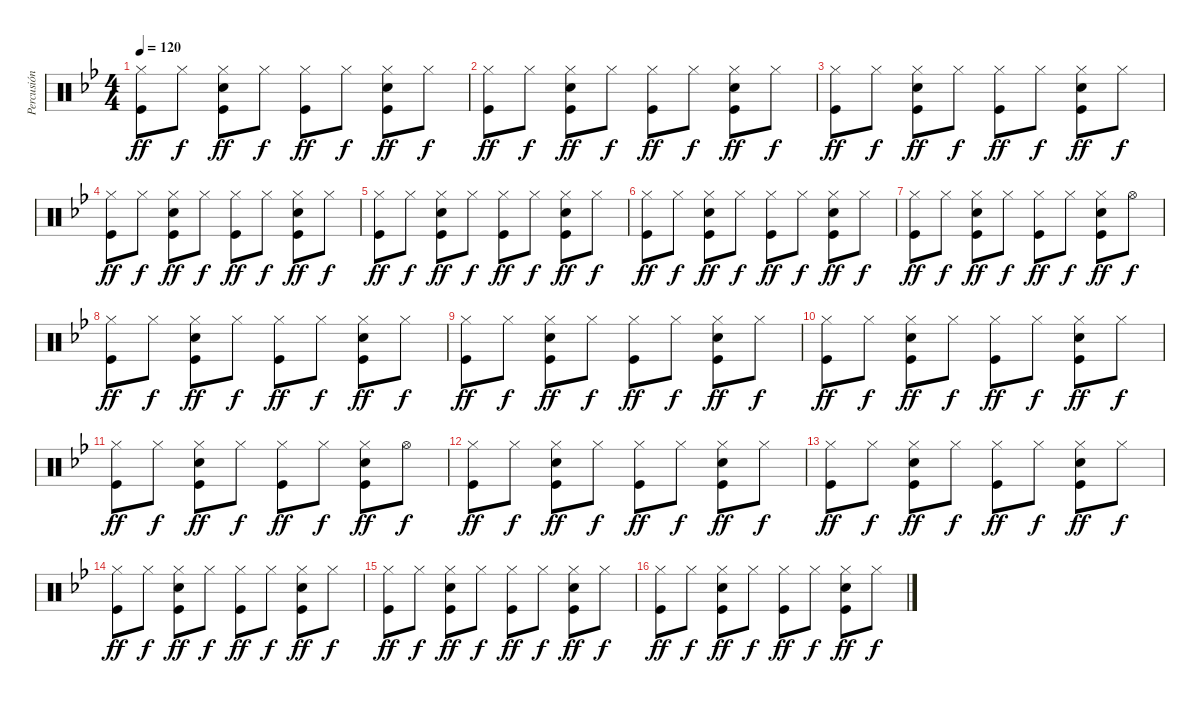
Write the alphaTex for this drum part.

\track ("Percusión" "Percusión") {instrument percussion}
\staff {score}
\articulation defaults
\ts (4 4)
\tempo 120
\clef neutral
\ks bb
("Hi-Hat (closed)" "Kick (hit)").8{dy ff} "Hi-Hat (closed)".8{dy f} ("Hi-Hat (closed)" "Snare (hit) 2" "Kick (hit)").8{dy ff} "Hi-Hat (closed)".8{dy f} ("Hi-Hat (closed)" "Kick (hit)").8{dy ff} "Hi-Hat (closed)".8{dy f} ("Hi-Hat (closed)" "Snare (hit) 2" "Kick (hit)").8{dy ff} "Hi-Hat (closed)".8{dy f} |
("Hi-Hat (closed)" "Kick (hit)").8{dy ff} "Hi-Hat (closed)".8{dy f} ("Hi-Hat (closed)" "Snare (hit) 2" "Kick (hit)").8{dy ff} "Hi-Hat (closed)".8{dy f} ("Hi-Hat (closed)" "Kick (hit)").8{dy ff} "Hi-Hat (closed)".8{dy f} ("Hi-Hat (closed)" "Snare (hit) 2" "Kick (hit)").8{dy ff} "Hi-Hat (closed)".8{dy f} |
("Hi-Hat (closed)" "Kick (hit)").8{dy ff} "Hi-Hat (closed)".8{dy f} ("Hi-Hat (closed)" "Snare (hit) 2" "Kick (hit)").8{dy ff} "Hi-Hat (closed)".8{dy f} ("Hi-Hat (closed)" "Kick (hit)").8{dy ff} "Hi-Hat (closed)".8{dy f} ("Hi-Hat (closed)" "Snare (hit) 2" "Kick (hit)").8{dy ff} "Hi-Hat (closed)".8{dy f} |
("Hi-Hat (closed)" "Kick (hit)").8{dy ff} "Hi-Hat (closed)".8{dy f} ("Hi-Hat (closed)" "Snare (hit) 2" "Kick (hit)").8{dy ff} "Hi-Hat (closed)".8{dy f} ("Hi-Hat (closed)" "Kick (hit)").8{dy ff} "Hi-Hat (closed)".8{dy f} ("Hi-Hat (closed)" "Snare (hit) 2" "Kick (hit)").8{dy ff} "Hi-Hat (closed)".8{dy f} |
("Hi-Hat (closed)" "Kick (hit)").8{dy ff} "Hi-Hat (closed)".8{dy f} ("Hi-Hat (closed)" "Snare (hit) 2" "Kick (hit)").8{dy ff} "Hi-Hat (closed)".8{dy f} ("Hi-Hat (closed)" "Kick (hit)").8{dy ff} "Hi-Hat (closed)".8{dy f} ("Hi-Hat (closed)" "Snare (hit) 2" "Kick (hit)").8{dy ff} "Hi-Hat (closed)".8{dy f} |
("Hi-Hat (closed)" "Kick (hit)").8{dy ff} "Hi-Hat (closed)".8{dy f} ("Hi-Hat (closed)" "Snare (hit) 2" "Kick (hit)").8{dy ff} "Hi-Hat (closed)".8{dy f} ("Hi-Hat (closed)" "Kick (hit)").8{dy ff} "Hi-Hat (closed)".8{dy f} ("Hi-Hat (closed)" "Snare (hit) 2" "Kick (hit)").8{dy ff} "Hi-Hat (closed)".8{dy f} |
("Hi-Hat (closed)" "Kick (hit)").8{dy ff} "Hi-Hat (closed)".8{dy f} ("Hi-Hat (closed)" "Snare (hit) 2" "Kick (hit)").8{dy ff} "Hi-Hat (closed)".8{dy f} ("Hi-Hat (closed)" "Kick (hit)").8{dy ff} "Hi-Hat (closed)".8{dy f} ("Hi-Hat (closed)" "Snare (hit) 2" "Kick (hit)").8{dy ff} "Hi-Hat (open)".8{dy f} |
("Hi-Hat (closed)" "Kick (hit)").8{dy ff} "Hi-Hat (closed)".8{dy f} ("Hi-Hat (closed)" "Snare (hit) 2" "Kick (hit)").8{dy ff} "Hi-Hat (closed)".8{dy f} ("Hi-Hat (closed)" "Kick (hit)").8{dy ff} "Hi-Hat (closed)".8{dy f} ("Hi-Hat (closed)" "Snare (hit) 2" "Kick (hit)").8{dy ff} "Hi-Hat (closed)".8{dy f} |
("Hi-Hat (closed)" "Kick (hit)").8{dy ff} "Hi-Hat (closed)".8{dy f} ("Hi-Hat (closed)" "Snare (hit) 2" "Kick (hit)").8{dy ff} "Hi-Hat (closed)".8{dy f} ("Hi-Hat (closed)" "Kick (hit)").8{dy ff} "Hi-Hat (closed)".8{dy f} ("Hi-Hat (closed)" "Snare (hit) 2" "Kick (hit)").8{dy ff} "Hi-Hat (closed)".8{dy f} |
("Hi-Hat (closed)" "Kick (hit)").8{dy ff} "Hi-Hat (closed)".8{dy f} ("Hi-Hat (closed)" "Snare (hit) 2" "Kick (hit)").8{dy ff} "Hi-Hat (closed)".8{dy f} ("Hi-Hat (closed)" "Kick (hit)").8{dy ff} "Hi-Hat (closed)".8{dy f} ("Hi-Hat (closed)" "Snare (hit) 2" "Kick (hit)").8{dy ff} "Hi-Hat (closed)".8{dy f} |
("Hi-Hat (closed)" "Kick (hit)").8{dy ff} "Hi-Hat (closed)".8{dy f} ("Hi-Hat (closed)" "Snare (hit) 2" "Kick (hit)").8{dy ff} "Hi-Hat (closed)".8{dy f} ("Hi-Hat (closed)" "Kick (hit)").8{dy ff} "Hi-Hat (closed)".8{dy f} ("Hi-Hat (closed)" "Snare (hit) 2" "Kick (hit)").8{dy ff} "Hi-Hat (open)".8{dy f} |
("Hi-Hat (closed)" "Kick (hit)").8{dy ff} "Hi-Hat (closed)".8{dy f} ("Hi-Hat (closed)" "Snare (hit) 2" "Kick (hit)").8{dy ff} "Hi-Hat (closed)".8{dy f} ("Hi-Hat (closed)" "Kick (hit)").8{dy ff} "Hi-Hat (closed)".8{dy f} ("Hi-Hat (closed)" "Snare (hit) 2" "Kick (hit)").8{dy ff} "Hi-Hat (closed)".8{dy f} |
("Hi-Hat (closed)" "Kick (hit)").8{dy ff} "Hi-Hat (closed)".8{dy f} ("Hi-Hat (closed)" "Snare (hit) 2" "Kick (hit)").8{dy ff} "Hi-Hat (closed)".8{dy f} ("Hi-Hat (closed)" "Kick (hit)").8{dy ff} "Hi-Hat (closed)".8{dy f} ("Hi-Hat (closed)" "Snare (hit) 2" "Kick (hit)").8{dy ff} "Hi-Hat (closed)".8{dy f} |
("Hi-Hat (closed)" "Kick (hit)").8{dy ff} "Hi-Hat (closed)".8{dy f} ("Hi-Hat (closed)" "Snare (hit) 2" "Kick (hit)").8{dy ff} "Hi-Hat (closed)".8{dy f} ("Hi-Hat (closed)" "Kick (hit)").8{dy ff} "Hi-Hat (closed)".8{dy f} ("Hi-Hat (closed)" "Snare (hit) 2" "Kick (hit)").8{dy ff} "Hi-Hat (closed)".8{dy f} |
("Hi-Hat (closed)" "Kick (hit)").8{dy ff} "Hi-Hat (closed)".8{dy f} ("Hi-Hat (closed)" "Snare (hit) 2" "Kick (hit)").8{dy ff} "Hi-Hat (closed)".8{dy f} ("Hi-Hat (closed)" "Kick (hit)").8{dy ff} "Hi-Hat (closed)".8{dy f} ("Hi-Hat (closed)" "Snare (hit) 2" "Kick (hit)").8{dy ff} "Hi-Hat (closed)".8{dy f} |
("Hi-Hat (closed)" "Kick (hit)").8{dy ff} "Hi-Hat (closed)".8{dy f} ("Hi-Hat (closed)" "Snare (hit) 2" "Kick (hit)").8{dy ff} "Hi-Hat (closed)".8{dy f} ("Hi-Hat (closed)" "Kick (hit)").8{dy ff} "Hi-Hat (closed)".8{dy f} ("Hi-Hat (closed)" "Snare (hit) 2" "Kick (hit)").8{dy ff} "Hi-Hat (closed)".8{dy f}
